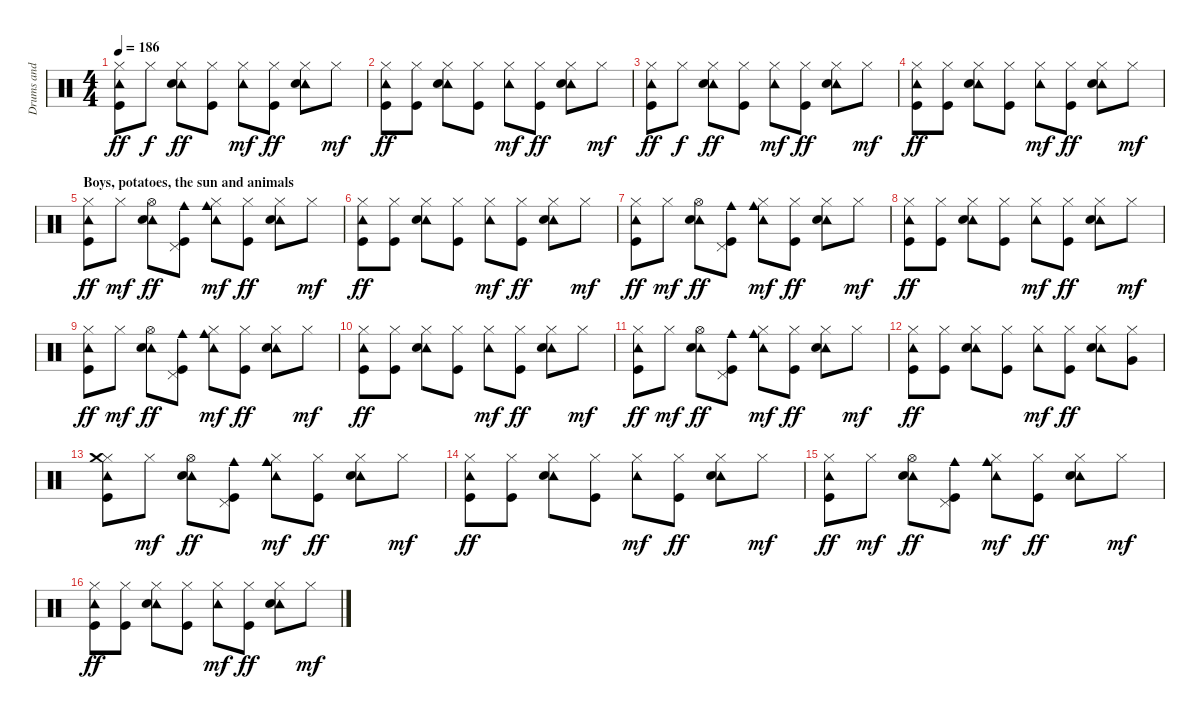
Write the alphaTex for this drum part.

\track ("Drums and Percs" "Drums and ") {instrument percussion}
\staff {score}
\articulation defaults
\ts (4 4)
\tempo 186
\clef neutral
\ks c
("Hi-Hat (closed)" "Tambourine (hit)" "Kick (hit)").8{dy ff} "Hi-Hat (closed)".8{dy f} ("Hi-Hat (closed)" "Tambourine (hit)" "Electric Snare (hit)").8{dy ff} ("Hi-Hat (closed)" "Kick (hit)").8 ("Hi-Hat (closed)" "Tambourine (hit)").8{dy mf} ("Hi-Hat (closed)" "Kick (hit)").8{dy ff} ("Hi-Hat (closed)" "Tambourine (hit)" "Electric Snare (hit)").8 "Hi-Hat (closed)".8{dy mf} |
("Hi-Hat (closed)" "Tambourine (hit)" "Kick (hit)").8{dy ff} ("Hi-Hat (closed)" "Kick (hit)").8 ("Hi-Hat (closed)" "Tambourine (hit)" "Electric Snare (hit)").8 ("Hi-Hat (closed)" "Kick (hit)").8 ("Hi-Hat (closed)" "Tambourine (hit)").8{dy mf} ("Hi-Hat (closed)" "Kick (hit)").8{dy ff} ("Hi-Hat (closed)" "Tambourine (hit)" "Electric Snare (hit)").8 "Hi-Hat (closed)".8{dy mf} |
("Hi-Hat (closed)" "Tambourine (hit)" "Kick (hit)").8{dy ff} "Hi-Hat (closed)".8{dy f} ("Hi-Hat (closed)" "Tambourine (hit)" "Electric Snare (hit)").8{dy ff} ("Hi-Hat (closed)" "Kick (hit)").8 ("Hi-Hat (closed)" "Tambourine (hit)").8{dy mf} ("Hi-Hat (closed)" "Kick (hit)").8{dy ff} ("Hi-Hat (closed)" "Tambourine (hit)" "Electric Snare (hit)").8 "Hi-Hat (closed)".8{dy mf} |
("Hi-Hat (closed)" "Tambourine (hit)" "Kick (hit)").8{dy ff} ("Hi-Hat (closed)" "Kick (hit)").8 ("Hi-Hat (closed)" "Tambourine (hit)" "Electric Snare (hit)").8 ("Hi-Hat (closed)" "Kick (hit)").8 ("Hi-Hat (closed)" "Tambourine (hit)").8{dy mf} ("Hi-Hat (closed)" "Kick (hit)").8{dy ff} ("Hi-Hat (closed)" "Tambourine (hit)" "Electric Snare (hit)").8 "Hi-Hat (closed)".8{dy mf} |
\section ("" "Boys, potatoes, the sun and animals")
("Hi-Hat (closed)" "Tambourine (hit)" "Kick (hit)").8{dy ff} "Hi-Hat (closed)".8{dy mf} ("Hi-Hat (open)" "Tambourine (hit)" "Electric Snare (hit)").8{dy ff} ("Pedal Hi-Hat (hit)" "Cowbell medium (hit)" "Kick (hit)").8 ("Hi-Hat (closed)" "Tambourine (hit)" "Cowbell medium (hit)").8{dy mf} ("Hi-Hat (closed)" "Kick (hit)").8{dy ff} ("Hi-Hat (closed)" "Tambourine (hit)" "Electric Snare (hit)").8 "Hi-Hat (closed)".8{dy mf} |
("Hi-Hat (closed)" "Tambourine (hit)" "Kick (hit)").8{dy ff} ("Hi-Hat (closed)" "Kick (hit)").8 ("Hi-Hat (closed)" "Tambourine (hit)" "Electric Snare (hit)").8 ("Hi-Hat (closed)" "Kick (hit)").8 ("Hi-Hat (closed)" "Tambourine (hit)").8{dy mf} ("Hi-Hat (closed)" "Kick (hit)").8{dy ff} ("Hi-Hat (closed)" "Tambourine (hit)" "Electric Snare (hit)").8 "Hi-Hat (closed)".8{dy mf} |
("Hi-Hat (closed)" "Tambourine (hit)" "Kick (hit)").8{dy ff} "Hi-Hat (closed)".8{dy mf} ("Hi-Hat (open)" "Tambourine (hit)" "Electric Snare (hit)").8{dy ff} ("Pedal Hi-Hat (hit)" "Cowbell medium (hit)" "Kick (hit)").8 ("Hi-Hat (closed)" "Tambourine (hit)" "Cowbell medium (hit)").8{dy mf} ("Hi-Hat (closed)" "Kick (hit)").8{dy ff} ("Hi-Hat (closed)" "Tambourine (hit)" "Electric Snare (hit)").8 "Hi-Hat (closed)".8{dy mf} |
("Hi-Hat (closed)" "Tambourine (hit)" "Kick (hit)").8{dy ff} ("Hi-Hat (closed)" "Kick (hit)").8 ("Hi-Hat (closed)" "Tambourine (hit)" "Electric Snare (hit)").8 ("Hi-Hat (closed)" "Kick (hit)").8 ("Hi-Hat (closed)" "Tambourine (hit)").8{dy mf} ("Hi-Hat (closed)" "Kick (hit)").8{dy ff} ("Hi-Hat (closed)" "Tambourine (hit)" "Electric Snare (hit)").8 "Hi-Hat (closed)".8{dy mf} |
("Hi-Hat (closed)" "Tambourine (hit)" "Kick (hit)").8{dy ff} "Hi-Hat (closed)".8{dy mf} ("Hi-Hat (open)" "Tambourine (hit)" "Electric Snare (hit)").8{dy ff} ("Pedal Hi-Hat (hit)" "Cowbell medium (hit)" "Kick (hit)").8 ("Hi-Hat (closed)" "Tambourine (hit)" "Cowbell medium (hit)").8{dy mf} ("Hi-Hat (closed)" "Kick (hit)").8{dy ff} ("Hi-Hat (closed)" "Tambourine (hit)" "Electric Snare (hit)").8 "Hi-Hat (closed)".8{dy mf} |
("Hi-Hat (closed)" "Tambourine (hit)" "Kick (hit)").8{dy ff} ("Hi-Hat (closed)" "Kick (hit)").8 ("Hi-Hat (closed)" "Tambourine (hit)" "Electric Snare (hit)").8 ("Hi-Hat (closed)" "Kick (hit)").8 ("Hi-Hat (closed)" "Tambourine (hit)").8{dy mf} ("Hi-Hat (closed)" "Kick (hit)").8{dy ff} ("Hi-Hat (closed)" "Tambourine (hit)" "Electric Snare (hit)").8 "Hi-Hat (closed)".8{dy mf} |
("Hi-Hat (closed)" "Tambourine (hit)" "Kick (hit)").8{dy ff} "Hi-Hat (closed)".8{dy mf} ("Hi-Hat (open)" "Tambourine (hit)" "Electric Snare (hit)").8{dy ff} ("Pedal Hi-Hat (hit)" "Cowbell medium (hit)" "Kick (hit)").8 ("Hi-Hat (closed)" "Tambourine (hit)" "Cowbell medium (hit)").8{dy mf} ("Hi-Hat (closed)" "Kick (hit)").8{dy ff} ("Hi-Hat (closed)" "Tambourine (hit)" "Electric Snare (hit)").8 "Hi-Hat (closed)".8{dy mf} |
("Hi-Hat (closed)" "Tambourine (hit)" "Kick (hit)").8{dy ff} ("Hi-Hat (closed)" "Kick (hit)").8 ("Hi-Hat (closed)" "Tambourine (hit)" "Electric Snare (hit)").8 ("Hi-Hat (closed)" "Kick (hit)").8 ("Hi-Hat (closed)" "Tambourine (hit)").8{dy mf} ("Hi-Hat (closed)" "Kick (hit)").8{dy ff} ("Hi-Hat (closed)" "Tambourine (hit)" "Electric Snare (hit)").8 ("Hi-Hat (closed)" "Very Low Tom (hit)").8 |
("Hi-Hat (closed)" "Tambourine (hit)" "Crash medium (hit)" "Kick (hit)").8 "Hi-Hat (closed)".8{dy mf} ("Hi-Hat (open)" "Tambourine (hit)" "Electric Snare (hit)").8{dy ff} ("Pedal Hi-Hat (hit)" "Cowbell medium (hit)" "Kick (hit)").8 ("Hi-Hat (closed)" "Tambourine (hit)" "Cowbell medium (hit)").8{dy mf} ("Hi-Hat (closed)" "Kick (hit)").8{dy ff} ("Hi-Hat (closed)" "Tambourine (hit)" "Electric Snare (hit)").8 "Hi-Hat (closed)".8{dy mf} |
("Hi-Hat (closed)" "Tambourine (hit)" "Kick (hit)").8{dy ff} ("Hi-Hat (closed)" "Kick (hit)").8 ("Hi-Hat (closed)" "Tambourine (hit)" "Electric Snare (hit)").8 ("Hi-Hat (closed)" "Kick (hit)").8 ("Hi-Hat (closed)" "Tambourine (hit)").8{dy mf} ("Hi-Hat (closed)" "Kick (hit)").8{dy ff} ("Hi-Hat (closed)" "Tambourine (hit)" "Electric Snare (hit)").8 "Hi-Hat (closed)".8{dy mf} |
("Hi-Hat (closed)" "Tambourine (hit)" "Kick (hit)").8{dy ff} "Hi-Hat (closed)".8{dy mf} ("Hi-Hat (open)" "Tambourine (hit)" "Electric Snare (hit)").8{dy ff} ("Pedal Hi-Hat (hit)" "Cowbell medium (hit)" "Kick (hit)").8 ("Hi-Hat (closed)" "Tambourine (hit)" "Cowbell medium (hit)").8{dy mf} ("Hi-Hat (closed)" "Kick (hit)").8{dy ff} ("Hi-Hat (closed)" "Tambourine (hit)" "Electric Snare (hit)").8 "Hi-Hat (closed)".8{dy mf} |
("Hi-Hat (closed)" "Tambourine (hit)" "Kick (hit)").8{dy ff} ("Hi-Hat (closed)" "Kick (hit)").8 ("Hi-Hat (closed)" "Tambourine (hit)" "Electric Snare (hit)").8 ("Hi-Hat (closed)" "Kick (hit)").8 ("Hi-Hat (closed)" "Tambourine (hit)").8{dy mf} ("Hi-Hat (closed)" "Kick (hit)").8{dy ff} ("Hi-Hat (closed)" "Tambourine (hit)" "Electric Snare (hit)").8 "Hi-Hat (closed)".8{dy mf}
